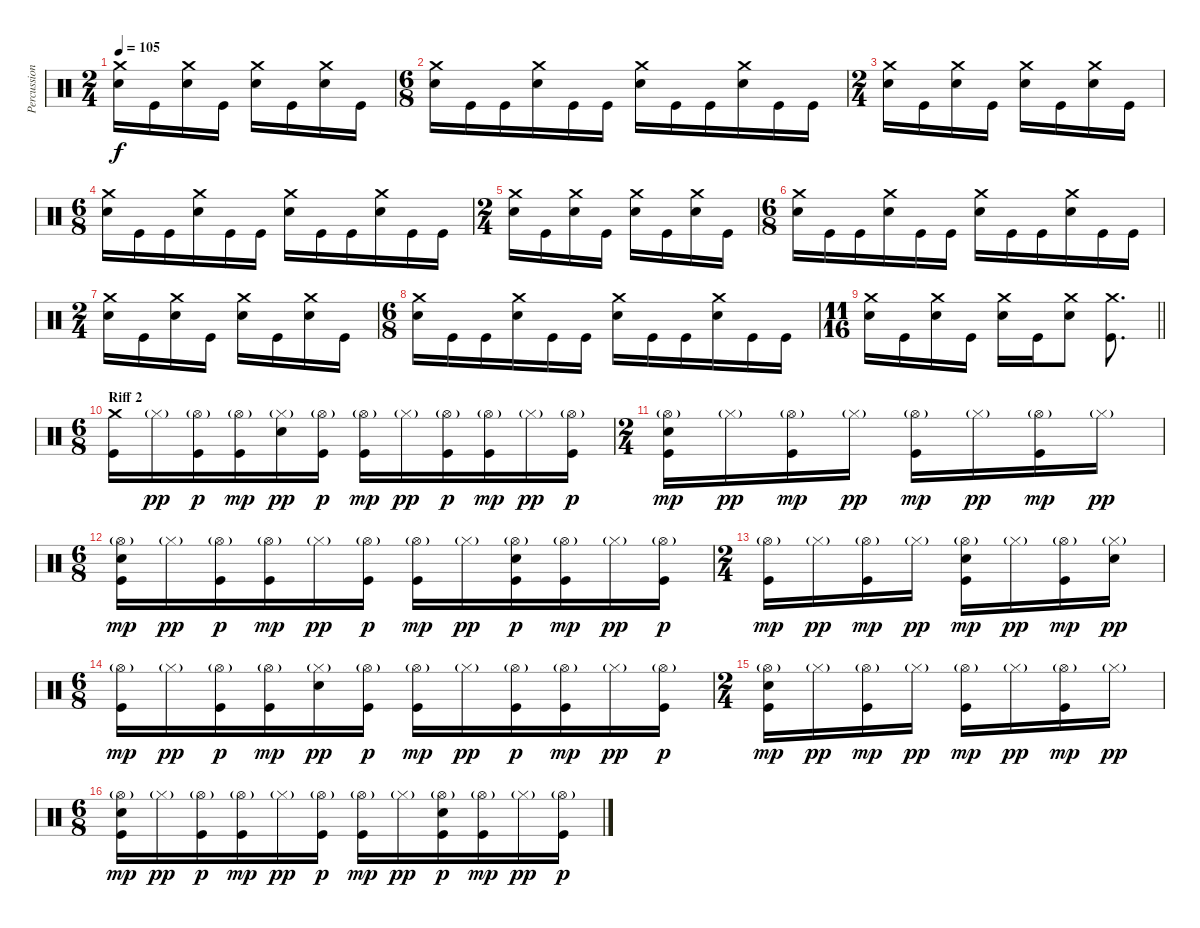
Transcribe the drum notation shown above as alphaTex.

\track ("Percussion" "Percussion") {instrument percussion}
\staff {score}
\articulation defaults
\ts (2 4)
\tempo 105
\clef neutral
\ks c
("Crash medium (hit)" "Snare (hit) 2").16{dy f} "Kick (hit)".16 ("Crash medium (hit)" "Snare (hit) 2").16 "Kick (hit)".16 ("Crash medium (hit)" "Snare (hit) 2").16 "Kick (hit)".16 ("Crash medium (hit)" "Snare (hit) 2").16 "Kick (hit)".16 |
\ts (6 8)
("Crash medium (hit)" "Snare (hit) 2").16 "Kick (hit)".16 "Kick (hit)".16 ("Crash medium (hit)" "Snare (hit) 2").16 "Kick (hit)".16 "Kick (hit)".16 ("Crash medium (hit)" "Snare (hit) 2").16 "Kick (hit)".16 "Kick (hit)".16 ("Crash medium (hit)" "Snare (hit) 2").16 "Kick (hit)".16 "Kick (hit)".16 |
\ts (2 4)
("Crash medium (hit)" "Snare (hit) 2").16 "Kick (hit)".16 ("Crash medium (hit)" "Snare (hit) 2").16 "Kick (hit)".16 ("Crash medium (hit)" "Snare (hit) 2").16 "Kick (hit)".16 ("Crash medium (hit)" "Snare (hit) 2").16 "Kick (hit)".16 |
\ts (6 8)
("Crash medium (hit)" "Snare (hit) 2").16 "Kick (hit)".16 "Kick (hit)".16 ("Crash medium (hit)" "Snare (hit) 2").16 "Kick (hit)".16 "Kick (hit)".16 ("Crash medium (hit)" "Snare (hit) 2").16 "Kick (hit)".16 "Kick (hit)".16 ("Crash medium (hit)" "Snare (hit) 2").16 "Kick (hit)".16 "Kick (hit)".16 |
\ts (2 4)
("Crash medium (hit)" "Snare (hit) 2").16 "Kick (hit)".16 ("Crash medium (hit)" "Snare (hit) 2").16 "Kick (hit)".16 ("Crash medium (hit)" "Snare (hit) 2").16 "Kick (hit)".16 ("Crash medium (hit)" "Snare (hit) 2").16 "Kick (hit)".16 |
\ts (6 8)
("Crash medium (hit)" "Snare (hit) 2").16 "Kick (hit)".16 "Kick (hit)".16 ("Crash medium (hit)" "Snare (hit) 2").16 "Kick (hit)".16 "Kick (hit)".16 ("Crash medium (hit)" "Snare (hit) 2").16 "Kick (hit)".16 "Kick (hit)".16 ("Crash medium (hit)" "Snare (hit) 2").16 "Kick (hit)".16 "Kick (hit)".16 |
\ts (2 4)
("Crash medium (hit)" "Snare (hit) 2").16 "Kick (hit)".16 ("Crash medium (hit)" "Snare (hit) 2").16 "Kick (hit)".16 ("Crash medium (hit)" "Snare (hit) 2").16 "Kick (hit)".16 ("Crash medium (hit)" "Snare (hit) 2").16 "Kick (hit)".16 |
\ts (6 8)
("Crash medium (hit)" "Snare (hit) 2").16 "Kick (hit)".16 "Kick (hit)".16 ("Crash medium (hit)" "Snare (hit) 2").16 "Kick (hit)".16 "Kick (hit)".16 ("Crash medium (hit)" "Snare (hit) 2").16 "Kick (hit)".16 "Kick (hit)".16 ("Crash medium (hit)" "Snare (hit) 2").16 "Kick (hit)".16 "Kick (hit)".16 |
\ts (11 16)
\barLineRight lightlight
("Crash medium (hit)" "Snare (hit) 2").16 "Kick (hit)".16 ("Crash medium (hit)" "Snare (hit) 2").16 "Kick (hit)".16 ("Crash medium (hit)" "Snare (hit) 2").16 "Kick (hit)".16 ("Crash medium (hit)" "Snare (hit) 2").8 ("Crash medium (hit)" "Kick (hit)").8{d} |
\ts (6 8)
\section ("" "Riff 2")
("Crash medium (hit)" "Kick (hit)").16 "Hi-Hat (closed)"{g}.16{dy pp} ("Hi-Hat (open)"{g} "Kick (hit)").16{dy p} ("Hi-Hat (open)"{g} "Kick (hit)").16{dy mp} ("Hi-Hat (closed)"{g} "Snare (hit) 2").16{dy pp} ("Hi-Hat (open)"{g} "Kick (hit)").16{dy p} ("Hi-Hat (open)"{g} "Kick (hit)").16{dy mp} "Hi-Hat (closed)"{g}.16{dy pp} ("Hi-Hat (open)"{g} "Kick (hit)").16{dy p} ("Hi-Hat (open)"{g} "Kick (hit)").16{dy mp} "Hi-Hat (closed)"{g}.16{dy pp} ("Hi-Hat (open)"{g} "Kick (hit)").16{dy p} |
\ts (2 4)
("Hi-Hat (open)"{g} "Snare (hit) 2" "Kick (hit)").16{dy mp} "Hi-Hat (closed)"{g}.16{dy pp} ("Hi-Hat (open)"{g} "Kick (hit)").16{dy mp} "Hi-Hat (closed)"{g}.16{dy pp} ("Hi-Hat (open)"{g} "Kick (hit)").16{dy mp} "Hi-Hat (closed)"{g}.16{dy pp} ("Hi-Hat (open)"{g} "Kick (hit)").16{dy mp} "Hi-Hat (closed)"{g}.16{dy pp} |
\ts (6 8)
("Hi-Hat (open)"{g} "Snare (hit) 2" "Kick (hit)").16{dy mp} "Hi-Hat (closed)"{g}.16{dy pp} ("Hi-Hat (open)"{g} "Kick (hit)").16{dy p} ("Hi-Hat (open)"{g} "Kick (hit)").16{dy mp} "Hi-Hat (closed)"{g}.16{dy pp} ("Hi-Hat (open)"{g} "Kick (hit)").16{dy p} ("Hi-Hat (open)"{g} "Kick (hit)").16{dy mp} "Hi-Hat (closed)"{g}.16{dy pp} ("Hi-Hat (open)"{g} "Snare (hit) 2" "Kick (hit)").16{dy p} ("Hi-Hat (open)"{g} "Kick (hit)").16{dy mp} "Hi-Hat (closed)"{g}.16{dy pp} ("Hi-Hat (open)"{g} "Kick (hit)").16{dy p} |
\ts (2 4)
("Hi-Hat (open)"{g} "Kick (hit)").16{dy mp} "Hi-Hat (closed)"{g}.16{dy pp} ("Hi-Hat (open)"{g} "Kick (hit)").16{dy mp} "Hi-Hat (closed)"{g}.16{dy pp} ("Hi-Hat (open)"{g} "Snare (hit) 2" "Kick (hit)").16{dy mp} "Hi-Hat (closed)"{g}.16{dy pp} ("Hi-Hat (open)"{g} "Kick (hit)").16{dy mp} ("Hi-Hat (closed)"{g} "Snare (hit) 2").16{dy pp} |
\ts (6 8)
("Hi-Hat (open)"{g} "Kick (hit)").16{dy mp} "Hi-Hat (closed)"{g}.16{dy pp} ("Hi-Hat (open)"{g} "Kick (hit)").16{dy p} ("Hi-Hat (open)"{g} "Kick (hit)").16{dy mp} ("Hi-Hat (closed)"{g} "Snare (hit) 2").16{dy pp} ("Hi-Hat (open)"{g} "Kick (hit)").16{dy p} ("Hi-Hat (open)"{g} "Kick (hit)").16{dy mp} "Hi-Hat (closed)"{g}.16{dy pp} ("Hi-Hat (open)"{g} "Kick (hit)").16{dy p} ("Hi-Hat (open)"{g} "Kick (hit)").16{dy mp} "Hi-Hat (closed)"{g}.16{dy pp} ("Hi-Hat (open)"{g} "Kick (hit)").16{dy p} |
\ts (2 4)
("Hi-Hat (open)"{g} "Snare (hit) 2" "Kick (hit)").16{dy mp} "Hi-Hat (closed)"{g}.16{dy pp} ("Hi-Hat (open)"{g} "Kick (hit)").16{dy mp} "Hi-Hat (closed)"{g}.16{dy pp} ("Hi-Hat (open)"{g} "Kick (hit)").16{dy mp} "Hi-Hat (closed)"{g}.16{dy pp} ("Hi-Hat (open)"{g} "Kick (hit)").16{dy mp} "Hi-Hat (closed)"{g}.16{dy pp} |
\ts (6 8)
("Hi-Hat (open)"{g} "Snare (hit) 2" "Kick (hit)").16{dy mp} "Hi-Hat (closed)"{g}.16{dy pp} ("Hi-Hat (open)"{g} "Kick (hit)").16{dy p} ("Hi-Hat (open)"{g} "Kick (hit)").16{dy mp} "Hi-Hat (closed)"{g}.16{dy pp} ("Hi-Hat (open)"{g} "Kick (hit)").16{dy p} ("Hi-Hat (open)"{g} "Kick (hit)").16{dy mp} "Hi-Hat (closed)"{g}.16{dy pp} ("Hi-Hat (open)"{g} "Snare (hit) 2" "Kick (hit)").16{dy p} ("Hi-Hat (open)"{g} "Kick (hit)").16{dy mp} "Hi-Hat (closed)"{g}.16{dy pp} ("Hi-Hat (open)"{g} "Kick (hit)").16{dy p}
